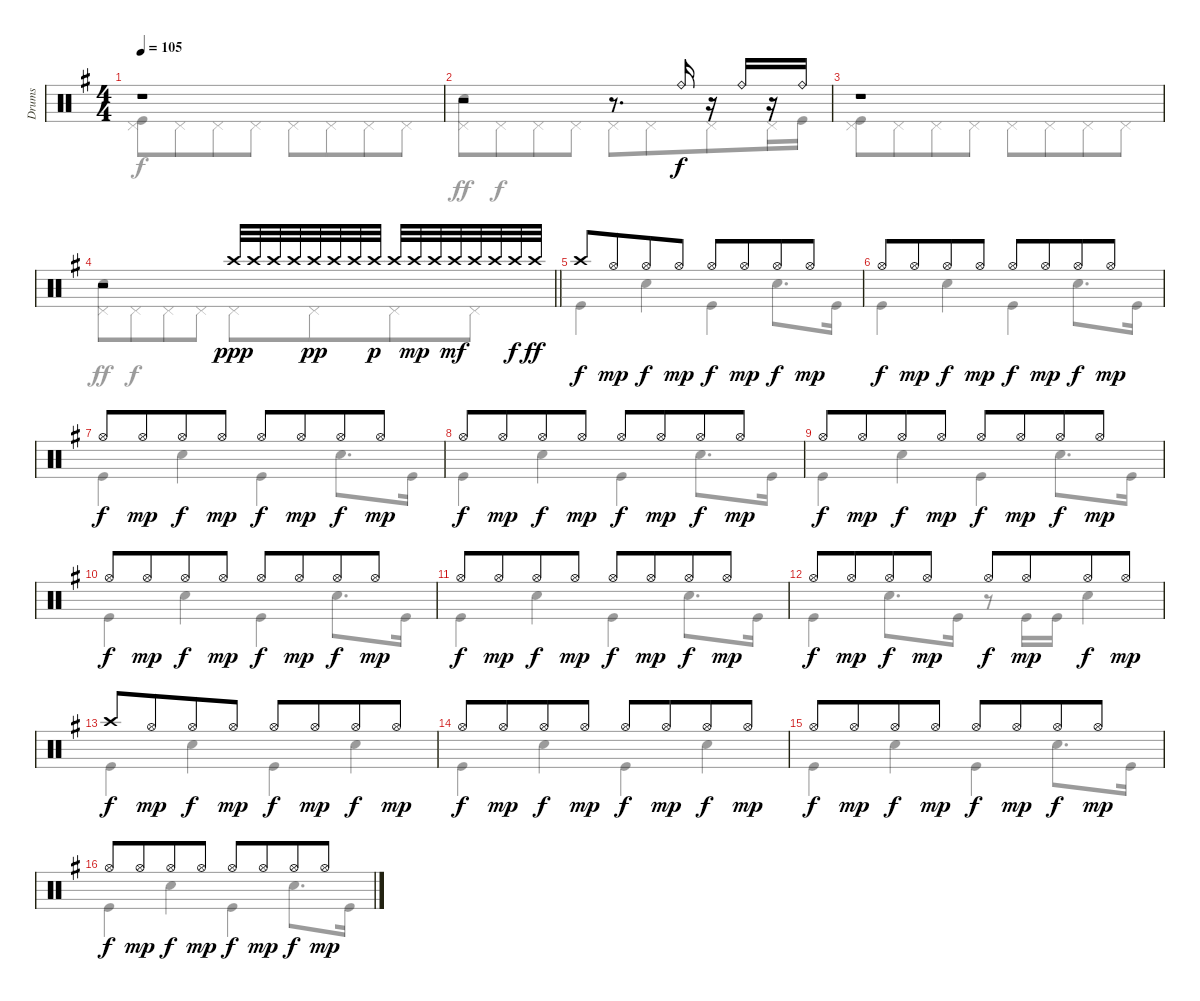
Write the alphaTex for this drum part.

\track ("Drums" "Drums") {instrument percussion}
\staff {score}
\articulation defaults
\voice
\ts (4 4)
\tempo 105
\clef neutral
\ks eminor
r.1{dy f} |
r.2 r.8{d} "Ride (bell)".16 r.16 "Ride (bell)".16 r.16 "Ride (bell)".16 |
r.1 |
\barLineRight lightlight
r.2 "Crash high (hit)".32{dy ppp} "Crash high (hit)".32 "Crash high (hit)".32 "Crash high (hit)".32 "Crash high (hit)".32{dy pp} "Crash high (hit)".32 "Crash high (hit)".32 "Crash high (hit)".32{dy p} "Crash high (hit)".32 "Crash high (hit)".32{dy mp} "Crash high (hit)".32 "Crash high (hit)".32{dy mf} "Crash high (hit)".32 "Crash high (hit)".32 "Crash high (hit)".32{dy f} "Crash high (hit)".32{dy ff} |
"Crash high (hit)".8{dy f} "Hi-Hat (open)".8{dy mp beam merge} "Hi-Hat (open)".8{dy f} "Hi-Hat (open)".8{dy mp} "Hi-Hat (open)".8{dy f} "Hi-Hat (open)".8{dy mp beam merge} "Hi-Hat (open)".8{dy f} "Hi-Hat (open)".8{dy mp} |
"Hi-Hat (open)".8{dy f} "Hi-Hat (open)".8{dy mp beam merge} "Hi-Hat (open)".8{dy f} "Hi-Hat (open)".8{dy mp} "Hi-Hat (open)".8{dy f} "Hi-Hat (open)".8{dy mp beam merge} "Hi-Hat (open)".8{dy f} "Hi-Hat (open)".8{dy mp} |
"Hi-Hat (open)".8{dy f} "Hi-Hat (open)".8{dy mp beam merge} "Hi-Hat (open)".8{dy f} "Hi-Hat (open)".8{dy mp} "Hi-Hat (open)".8{dy f} "Hi-Hat (open)".8{dy mp beam merge} "Hi-Hat (open)".8{dy f} "Hi-Hat (open)".8{dy mp} |
"Hi-Hat (open)".8{dy f} "Hi-Hat (open)".8{dy mp beam merge} "Hi-Hat (open)".8{dy f} "Hi-Hat (open)".8{dy mp} "Hi-Hat (open)".8{dy f} "Hi-Hat (open)".8{dy mp beam merge} "Hi-Hat (open)".8{dy f} "Hi-Hat (open)".8{dy mp} |
"Hi-Hat (open)".8{dy f} "Hi-Hat (open)".8{dy mp beam merge} "Hi-Hat (open)".8{dy f} "Hi-Hat (open)".8{dy mp} "Hi-Hat (open)".8{dy f} "Hi-Hat (open)".8{dy mp beam merge} "Hi-Hat (open)".8{dy f} "Hi-Hat (open)".8{dy mp} |
"Hi-Hat (open)".8{dy f} "Hi-Hat (open)".8{dy mp beam merge} "Hi-Hat (open)".8{dy f} "Hi-Hat (open)".8{dy mp} "Hi-Hat (open)".8{dy f} "Hi-Hat (open)".8{dy mp beam merge} "Hi-Hat (open)".8{dy f} "Hi-Hat (open)".8{dy mp} |
"Hi-Hat (open)".8{dy f} "Hi-Hat (open)".8{dy mp beam merge} "Hi-Hat (open)".8{dy f} "Hi-Hat (open)".8{dy mp} "Hi-Hat (open)".8{dy f} "Hi-Hat (open)".8{dy mp beam merge} "Hi-Hat (open)".8{dy f} "Hi-Hat (open)".8{dy mp} |
"Hi-Hat (open)".8{dy f} "Hi-Hat (open)".8{dy mp beam merge} "Hi-Hat (open)".8{dy f} "Hi-Hat (open)".8{dy mp} "Hi-Hat (open)".8{dy f} "Hi-Hat (open)".8{dy mp beam merge} "Hi-Hat (open)".8{dy f} "Hi-Hat (open)".8{dy mp} |
"Crash high (hit)".8{dy f} "Hi-Hat (open)".8{dy mp beam merge} "Hi-Hat (open)".8{dy f} "Hi-Hat (open)".8{dy mp} "Hi-Hat (open)".8{dy f} "Hi-Hat (open)".8{dy mp beam merge} "Hi-Hat (open)".8{dy f} "Hi-Hat (open)".8{dy mp} |
"Hi-Hat (open)".8{dy f} "Hi-Hat (open)".8{dy mp beam merge} "Hi-Hat (open)".8{dy f} "Hi-Hat (open)".8{dy mp} "Hi-Hat (open)".8{dy f} "Hi-Hat (open)".8{dy mp beam merge} "Hi-Hat (open)".8{dy f} "Hi-Hat (open)".8{dy mp} |
"Hi-Hat (open)".8{dy f} "Hi-Hat (open)".8{dy mp beam merge} "Hi-Hat (open)".8{dy f} "Hi-Hat (open)".8{dy mp} "Hi-Hat (open)".8{dy f} "Hi-Hat (open)".8{dy mp beam merge} "Hi-Hat (open)".8{dy f} "Hi-Hat (open)".8{dy mp} |
"Hi-Hat (open)".8{dy f} "Hi-Hat (open)".8{dy mp beam merge} "Hi-Hat (open)".8{dy f} "Hi-Hat (open)".8{dy mp} "Hi-Hat (open)".8{dy f} "Hi-Hat (open)".8{dy mp beam merge} "Hi-Hat (open)".8{dy f} "Hi-Hat (open)".8{dy mp}
\voice
\clef neutral
\ottava regular
\simile none
\ks eminor
("Pedal Hi-Hat (hit)" "Kick (hit)").8{dy f} "Pedal Hi-Hat (hit)".8{beam merge} "Pedal Hi-Hat (hit)".8 "Pedal Hi-Hat (hit)".8 "Pedal Hi-Hat (hit)".8 "Pedal Hi-Hat (hit)".8{beam merge} "Pedal Hi-Hat (hit)".8 "Pedal Hi-Hat (hit)".8 |
("Snare (hit) 2" "Pedal Hi-Hat (hit)").8{dy ff} "Pedal Hi-Hat (hit)".8{dy f beam merge} "Pedal Hi-Hat (hit)".8 "Pedal Hi-Hat (hit)".8 "Pedal Hi-Hat (hit)".8 "Pedal Hi-Hat (hit)".8{beam merge} "Pedal Hi-Hat (hit)".8 "Pedal Hi-Hat (hit)".16 "Kick (hit)".16 |
("Pedal Hi-Hat (hit)" "Kick (hit)").8 "Pedal Hi-Hat (hit)".8{beam merge} "Pedal Hi-Hat (hit)".8 "Pedal Hi-Hat (hit)".8 "Pedal Hi-Hat (hit)".8 "Pedal Hi-Hat (hit)".8{beam merge} "Pedal Hi-Hat (hit)".8 "Pedal Hi-Hat (hit)".8 |
\barLineRight lightlight
("Snare (hit) 2" "Pedal Hi-Hat (hit)").8{dy ff} "Pedal Hi-Hat (hit)".8{dy f beam merge} "Pedal Hi-Hat (hit)".8 "Pedal Hi-Hat (hit)".8 "Pedal Hi-Hat (hit)".8 "Pedal Hi-Hat (hit)".8{beam merge} "Pedal Hi-Hat (hit)".8 "Pedal Hi-Hat (hit)".8 |
"Kick (hit)".4 "Snare (hit) 2".4 "Kick (hit)".4 "Snare (hit) 2".8{d} "Kick (hit)".16 |
"Kick (hit)".4 "Snare (hit) 2".4 "Kick (hit)".4 "Snare (hit) 2".8{d} "Kick (hit)".16 |
"Kick (hit)".4 "Snare (hit) 2".4 "Kick (hit)".4 "Snare (hit) 2".8{d} "Kick (hit)".16 |
"Kick (hit)".4 "Snare (hit) 2".4 "Kick (hit)".4 "Snare (hit) 2".8{d} "Kick (hit)".16 |
"Kick (hit)".4 "Snare (hit) 2".4 "Kick (hit)".4 "Snare (hit) 2".8{d} "Kick (hit)".16 |
"Kick (hit)".4 "Snare (hit) 2".4 "Kick (hit)".4 "Snare (hit) 2".8{d} "Kick (hit)".16 |
"Kick (hit)".4 "Snare (hit) 2".4 "Kick (hit)".4 "Snare (hit) 2".8{d} "Kick (hit)".16 |
"Kick (hit)".4 "Snare (hit) 2".8{d} "Kick (hit)".16 r.8 "Kick (hit)".16 "Kick (hit)".16 "Snare (hit) 2".4 |
"Kick (hit)".4 "Snare (hit) 2".4 "Kick (hit)".4 "Snare (hit) 2".4 |
"Kick (hit)".4 "Snare (hit) 2".4 "Kick (hit)".4 "Snare (hit) 2".4 |
"Kick (hit)".4 "Snare (hit) 2".4 "Kick (hit)".4 "Snare (hit) 2".8{d} "Kick (hit)".16 |
"Kick (hit)".4 "Snare (hit) 2".4 "Kick (hit)".4 "Snare (hit) 2".8{d} "Kick (hit)".16
